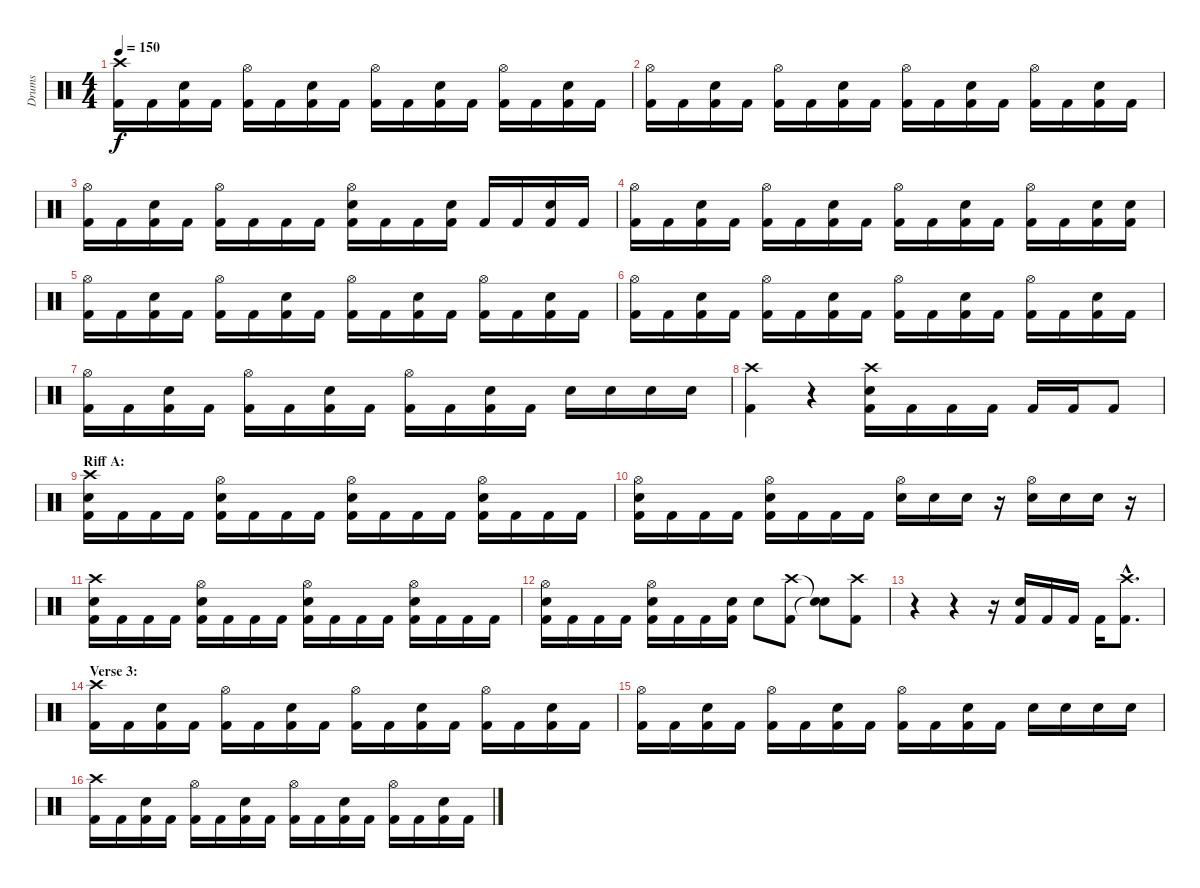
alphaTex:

\track ("Drums" "Drums") {instrument percussion}
\staff {score}
\articulation defaults
\ts (4 4)
\tempo 150
\clef neutral
\ks c
("Crash high (hit)" "Kick (hit) 2").16{dy f} "Kick (hit) 2".16 ("Electric Snare (hit)" "Kick (hit) 2").16 "Kick (hit) 2".16 ("Hi-Hat (open)" "Kick (hit) 2").16 "Kick (hit) 2".16 ("Electric Snare (hit)" "Kick (hit) 2").16 "Kick (hit) 2".16 ("Hi-Hat (open)" "Kick (hit) 2").16 "Kick (hit) 2".16 ("Electric Snare (hit)" "Kick (hit) 2").16 "Kick (hit) 2".16 ("Hi-Hat (open)" "Kick (hit) 2").16 "Kick (hit) 2".16 ("Electric Snare (hit)" "Kick (hit) 2").16 "Kick (hit) 2".16 |
("Hi-Hat (open)" "Kick (hit) 2").16 "Kick (hit) 2".16 ("Electric Snare (hit)" "Kick (hit) 2").16 "Kick (hit) 2".16 ("Hi-Hat (open)" "Kick (hit) 2").16 "Kick (hit) 2".16 ("Electric Snare (hit)" "Kick (hit) 2").16 "Kick (hit) 2".16 ("Hi-Hat (open)" "Kick (hit) 2").16 "Kick (hit) 2".16 ("Electric Snare (hit)" "Kick (hit) 2").16 "Kick (hit) 2".16 ("Hi-Hat (open)" "Kick (hit) 2").16 "Kick (hit) 2".16 ("Electric Snare (hit)" "Kick (hit) 2").16 "Kick (hit) 2".16 |
("Hi-Hat (open)" "Kick (hit) 2").16 "Kick (hit) 2".16 ("Electric Snare (hit)" "Kick (hit) 2").16 "Kick (hit) 2".16 ("Hi-Hat (open)" "Kick (hit) 2").16 "Kick (hit) 2".16 "Kick (hit) 2".16 "Kick (hit) 2".16 ("Hi-Hat (open)" "Electric Snare (hit)" "Kick (hit) 2").16 "Kick (hit) 2".16 "Kick (hit) 2".16 ("Electric Snare (hit)" "Kick (hit) 2").16 "Kick (hit) 2".16 "Kick (hit) 2".16 ("Electric Snare (hit)" "Kick (hit) 2").16 "Kick (hit) 2".16 |
("Hi-Hat (open)" "Kick (hit) 2").16 "Kick (hit) 2".16 ("Electric Snare (hit)" "Kick (hit) 2").16 "Kick (hit) 2".16 ("Hi-Hat (open)" "Kick (hit) 2").16 "Kick (hit) 2".16 ("Electric Snare (hit)" "Kick (hit) 2").16 "Kick (hit) 2".16 ("Hi-Hat (open)" "Kick (hit) 2").16 "Kick (hit) 2".16 ("Electric Snare (hit)" "Kick (hit) 2").16 "Kick (hit) 2".16 ("Hi-Hat (open)" "Kick (hit) 2").16 "Kick (hit) 2".16 ("Electric Snare (hit)" "Kick (hit) 2").16 ("Electric Snare (hit)" "Kick (hit) 2").16 |
("Hi-Hat (open)" "Kick (hit) 2").16 "Kick (hit) 2".16 ("Electric Snare (hit)" "Kick (hit) 2").16 "Kick (hit) 2".16 ("Hi-Hat (open)" "Kick (hit) 2").16 "Kick (hit) 2".16 ("Electric Snare (hit)" "Kick (hit) 2").16 "Kick (hit) 2".16 ("Hi-Hat (open)" "Kick (hit) 2").16 "Kick (hit) 2".16 ("Electric Snare (hit)" "Kick (hit) 2").16 "Kick (hit) 2".16 ("Hi-Hat (open)" "Kick (hit) 2").16 "Kick (hit) 2".16 ("Electric Snare (hit)" "Kick (hit) 2").16 "Kick (hit) 2".16 |
("Hi-Hat (open)" "Kick (hit) 2").16 "Kick (hit) 2".16 ("Electric Snare (hit)" "Kick (hit) 2").16 "Kick (hit) 2".16 ("Hi-Hat (open)" "Kick (hit) 2").16 "Kick (hit) 2".16 ("Electric Snare (hit)" "Kick (hit) 2").16 "Kick (hit) 2".16 ("Hi-Hat (open)" "Kick (hit) 2").16 "Kick (hit) 2".16 ("Electric Snare (hit)" "Kick (hit) 2").16 "Kick (hit) 2".16 ("Hi-Hat (open)" "Kick (hit) 2").16 "Kick (hit) 2".16 ("Electric Snare (hit)" "Kick (hit) 2").16 "Kick (hit) 2".16 |
("Hi-Hat (open)" "Kick (hit) 2").16 "Kick (hit) 2".16 ("Electric Snare (hit)" "Kick (hit) 2").16 "Kick (hit) 2".16 ("Hi-Hat (open)" "Kick (hit) 2").16 "Kick (hit) 2".16 ("Electric Snare (hit)" "Kick (hit) 2").16 "Kick (hit) 2".16 ("Hi-Hat (open)" "Kick (hit) 2").16 "Kick (hit) 2".16 ("Electric Snare (hit)" "Kick (hit) 2").16 "Kick (hit) 2".16 "Electric Snare (hit)".16 "Electric Snare (hit)".16 "Electric Snare (hit)".16 "Electric Snare (hit)".16 |
("Crash high (hit)" "Kick (hit) 2").4 r.4 ("Crash high (hit)" "Electric Snare (hit)" "Kick (hit) 2").16 "Kick (hit) 2".16 "Kick (hit) 2".16 "Kick (hit) 2".16 "Kick (hit) 2".16 "Kick (hit) 2".16 "Kick (hit) 2".8 |
\section ("" "Riff A:")
("Crash high (hit)" "Electric Snare (hit)" "Kick (hit) 2").16 "Kick (hit) 2".16 "Kick (hit) 2".16 "Kick (hit) 2".16 ("Hi-Hat (open)" "Electric Snare (hit)" "Kick (hit) 2").16 "Kick (hit) 2".16 "Kick (hit) 2".16 "Kick (hit) 2".16 ("Hi-Hat (open)" "Electric Snare (hit)" "Kick (hit) 2").16 "Kick (hit) 2".16 "Kick (hit) 2".16 "Kick (hit) 2".16 ("Hi-Hat (open)" "Electric Snare (hit)" "Kick (hit) 2").16 "Kick (hit) 2".16 "Kick (hit) 2".16 "Kick (hit) 2".16 |
("Hi-Hat (open)" "Electric Snare (hit)" "Kick (hit) 2").16 "Kick (hit) 2".16 "Kick (hit) 2".16 "Kick (hit) 2".16 ("Hi-Hat (open)" "Electric Snare (hit)" "Kick (hit) 2").16 "Kick (hit) 2".16 "Kick (hit) 2".16 "Kick (hit) 2".16 ("Hi-Hat (open)" "Electric Snare (hit)").16 "Electric Snare (hit)".16 "Electric Snare (hit)".16 r.16 ("Hi-Hat (open)" "Electric Snare (hit)").16 "Electric Snare (hit)".16 "Electric Snare (hit)".16 r.16 |
("Crash high (hit)" "Electric Snare (hit)" "Kick (hit) 2").16 "Kick (hit) 2".16 "Kick (hit) 2".16 "Kick (hit) 2".16 ("Hi-Hat (open)" "Electric Snare (hit)" "Kick (hit) 2").16 "Kick (hit) 2".16 "Kick (hit) 2".16 "Kick (hit) 2".16 ("Hi-Hat (open)" "Electric Snare (hit)" "Kick (hit) 2").16 "Kick (hit) 2".16 "Kick (hit) 2".16 "Kick (hit) 2".16 ("Hi-Hat (open)" "Electric Snare (hit)" "Kick (hit) 2").16 "Kick (hit) 2".16 "Kick (hit) 2".16 "Kick (hit) 2".16 |
("Hi-Hat (open)" "Electric Snare (hit)" "Kick (hit) 2").16 "Kick (hit) 2".16 "Kick (hit) 2".16 "Kick (hit) 2".16 ("Hi-Hat (open)" "Electric Snare (hit)" "Kick (hit) 2").16 "Kick (hit) 2".16 "Kick (hit) 2".16 ("Electric Snare (hit)" "Kick (hit) 2").16 "Electric Snare (hit)".8 ("Crash high (hit)" "Kick (hit) 2").8 ("Snare (hit)"{t} "Snare (hit)"{t}).8 ("Crash high (hit)" "Kick (hit) 2").8 |
r.4 r.4 r.16 ("Electric Snare (hit)" "Kick (hit) 2").16 "Kick (hit) 2".16 "Kick (hit) 2".16 "Kick (hit) 2".16 ("Crash high (hit)"{hac} "Kick (hit) 2"{hac}).8{d} |
\section ("" "Verse 3:")
("Crash high (hit)" "Kick (hit) 2").16 "Kick (hit) 2".16 ("Electric Snare (hit)" "Kick (hit) 2").16 "Kick (hit) 2".16 ("Hi-Hat (open)" "Kick (hit) 2").16 "Kick (hit) 2".16 ("Electric Snare (hit)" "Kick (hit) 2").16 "Kick (hit) 2".16 ("Hi-Hat (open)" "Kick (hit) 2").16 "Kick (hit) 2".16 ("Electric Snare (hit)" "Kick (hit) 2").16 "Kick (hit) 2".16 ("Hi-Hat (open)" "Kick (hit) 2").16 "Kick (hit) 2".16 ("Electric Snare (hit)" "Kick (hit) 2").16 "Kick (hit) 2".16 |
("Hi-Hat (open)" "Kick (hit) 2").16 "Kick (hit) 2".16 ("Electric Snare (hit)" "Kick (hit) 2").16 "Kick (hit) 2".16 ("Hi-Hat (open)" "Kick (hit) 2").16 "Kick (hit) 2".16 ("Electric Snare (hit)" "Kick (hit) 2").16 "Kick (hit) 2".16 ("Hi-Hat (open)" "Kick (hit) 2").16 "Kick (hit) 2".16 ("Electric Snare (hit)" "Kick (hit) 2").16 "Kick (hit) 2".16 "Electric Snare (hit)".16 "Electric Snare (hit)".16 "Electric Snare (hit)".16 "Electric Snare (hit)".16 |
("Crash high (hit)" "Kick (hit) 2").16 "Kick (hit) 2".16 ("Electric Snare (hit)" "Kick (hit) 2").16 "Kick (hit) 2".16 ("Hi-Hat (open)" "Kick (hit) 2").16 "Kick (hit) 2".16 ("Electric Snare (hit)" "Kick (hit) 2").16 "Kick (hit) 2".16 ("Hi-Hat (open)" "Kick (hit) 2").16 "Kick (hit) 2".16 ("Electric Snare (hit)" "Kick (hit) 2").16 "Kick (hit) 2".16 ("Hi-Hat (open)" "Kick (hit) 2").16 "Kick (hit) 2".16 ("Electric Snare (hit)" "Kick (hit) 2").16 "Kick (hit) 2".16
